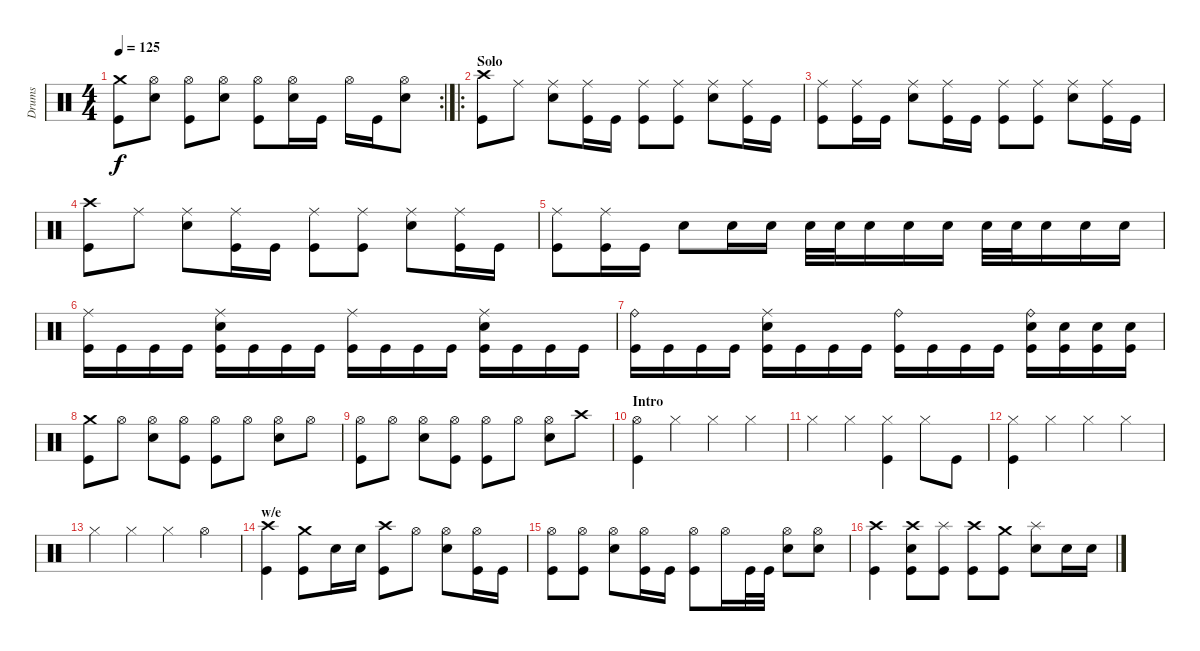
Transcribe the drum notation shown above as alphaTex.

\track ("Drums" "Drums") {instrument percussion}
\staff {score}
\articulation defaults
\rc 2
\ts (4 4)
\tempo 125
\clef neutral
\ks c
("Crash medium (hit)" "Kick (hit)").8{dy f} ("Hi-Hat (open)" "Electric Snare (hit)").8 ("Hi-Hat (open)" "Kick (hit)").8 ("Hi-Hat (open)" "Electric Snare (hit)").8 ("Hi-Hat (open)" "Kick (hit)").8 ("Hi-Hat (open)" "Electric Snare (hit)").16 "Kick (hit)".16 "Hi-Hat (open)".16 "Kick (hit)".16 ("Hi-Hat (open)" "Electric Snare (hit)").8 |
\ro
\section ("" "Solo")
("Crash high (hit)" "Kick (hit)").8 "Ride (middle)".8 ("Ride (middle)" "Electric Snare (hit)").8 ("Ride (middle)" "Kick (hit)").16 "Kick (hit)".16 ("Ride (middle)" "Kick (hit)").8 ("Ride (middle)" "Kick (hit)").8 ("Ride (middle)" "Electric Snare (hit)").8 ("Ride (middle)" "Kick (hit)").16 "Kick (hit)".16 |
("Ride (middle)" "Kick (hit)").8 ("Ride (middle)" "Kick (hit)").16 "Kick (hit)".16 ("Ride (middle)" "Electric Snare (hit)").8 ("Ride (middle)" "Kick (hit)").16 "Kick (hit)".16 ("Ride (middle)" "Kick (hit)").8 ("Ride (middle)" "Kick (hit)").8 ("Ride (middle)" "Electric Snare (hit)").8 ("Ride (middle)" "Kick (hit)").16 "Kick (hit)".16 |
("Crash high (hit)" "Kick (hit)").8 "Ride (middle)".8 ("Ride (middle)" "Electric Snare (hit)").8 ("Ride (middle)" "Kick (hit)").16 "Kick (hit)".16 ("Ride (middle)" "Kick (hit)").8 ("Ride (middle)" "Kick (hit)").8 ("Ride (middle)" "Electric Snare (hit)").8 ("Ride (middle)" "Kick (hit)").16 "Kick (hit)".16 |
("Ride (middle)" "Kick (hit)").8 ("Ride (middle)" "Kick (hit)").16 "Kick (hit)".16 "Electric Snare (hit)".8 "Electric Snare (hit)".16 "Electric Snare (hit)".16 "Electric Snare (hit)".32 "Electric Snare (hit)".32 "Electric Snare (hit)".16 "Electric Snare (hit)".16 "Electric Snare (hit)".16 "Electric Snare (hit)".32 "Electric Snare (hit)".32 "Electric Snare (hit)".16 "Electric Snare (hit)".16 "Electric Snare (hit)".16 |
("Ride (middle)" "Kick (hit)").16 "Kick (hit)".16 "Kick (hit)".16 "Kick (hit)".16 ("Ride (middle)" "Electric Snare (hit)" "Kick (hit)").16 "Kick (hit)".16 "Kick (hit)".16 "Kick (hit)".16 ("Ride (middle)" "Kick (hit)").16 "Kick (hit)".16 "Kick (hit)".16 "Kick (hit)".16 ("Ride (middle)" "Electric Snare (hit)" "Kick (hit)").16 "Kick (hit)".16 "Kick (hit)".16 "Kick (hit)".16 |
("Ride (bell)" "Kick (hit)").16 "Kick (hit)".16 "Kick (hit)".16 "Kick (hit)".16 ("Ride (middle)" "Electric Snare (hit)" "Kick (hit)").16 "Kick (hit)".16 "Kick (hit)".16 "Kick (hit)".16 ("Ride (bell)" "Kick (hit)").16 "Kick (hit)".16 "Kick (hit)".16 "Kick (hit)".16 ("Ride (bell)" "Electric Snare (hit)" "Kick (hit)").16 ("Electric Snare (hit)" "Kick (hit)").16 ("Electric Snare (hit)" "Kick (hit)").16 ("Electric Snare (hit)" "Kick (hit)").16 |
("Crash medium (hit)" "Kick (hit)").8 "Hi-Hat (open)".8 ("Hi-Hat (open)" "Electric Snare (hit)").8 ("Hi-Hat (open)" "Kick (hit)").8 ("Hi-Hat (open)" "Kick (hit)").8 "Hi-Hat (open)".8 ("Hi-Hat (open)" "Electric Snare (hit)").8 "Hi-Hat (open)".8 |
("Hi-Hat (open)" "Kick (hit)").8 "Hi-Hat (open)".8 ("Hi-Hat (open)" "Electric Snare (hit)").8 ("Hi-Hat (open)" "Kick (hit)").8 ("Hi-Hat (open)" "Kick (hit)").8 "Hi-Hat (open)".8 ("Hi-Hat (open)" "Electric Snare (hit)").8 "Crash high (hit)".8 |
\section ("" "Intro")
("Hi-Hat (open)" "Kick (hit)").4 "Hi-Hat (closed)".4 "Hi-Hat (closed)".4 "Hi-Hat (closed)".4 |
"Hi-Hat (closed)".4 "Hi-Hat (closed)".4 ("Hi-Hat (closed)" "Kick (hit)").4 "Hi-Hat (closed)".8 "Kick (hit)".8 |
("Hi-Hat (closed)" "Kick (hit)").4 "Hi-Hat (closed)".4 "Hi-Hat (closed)".4 "Hi-Hat (closed)".4 |
"Hi-Hat (closed)".4 "Hi-Hat (closed)".4 "Hi-Hat (closed)".4 "Hi-Hat (open)".4 |
\section ("" "w/e")
("Crash high (hit)" "Kick (hit)").4 ("Crash medium (hit)" "Kick (hit)").8 "Electric Snare (hit)".16 "Electric Snare (hit)".16 ("Crash high (hit)" "Kick (hit)").8 "Hi-Hat (open)".8 ("Hi-Hat (open)" "Electric Snare (hit)").8 ("Hi-Hat (open)" "Kick (hit)").16 "Kick (hit)".16 |
("Hi-Hat (open)" "Kick (hit)").8 ("Hi-Hat (open)" "Kick (hit)").8 ("Hi-Hat (open)" "Electric Snare (hit)").8 ("Hi-Hat (open)" "Kick (hit)").16 "Kick (hit)".16 ("Hi-Hat (open)" "Kick (hit)").8 "Hi-Hat (open)".16 "Kick (hit)".32 "Kick (hit)".32 ("Hi-Hat (open)" "Electric Snare (hit)").8 ("Hi-Hat (open)" "Electric Snare (hit)").8 |
("Crash high (hit)" "Kick (hit)").4 ("Crash high (hit)" "Electric Snare (hit)" "Kick (hit)").8 ("Splash (hit)" "Kick (hit)").8 ("Crash high (hit)" "Kick (hit)").8 ("Crash medium (hit)" "Kick (hit)").8 ("Splash (hit)" "Electric Snare (hit)").8 "Electric Snare (hit)".16 "Electric Snare (hit)".16
